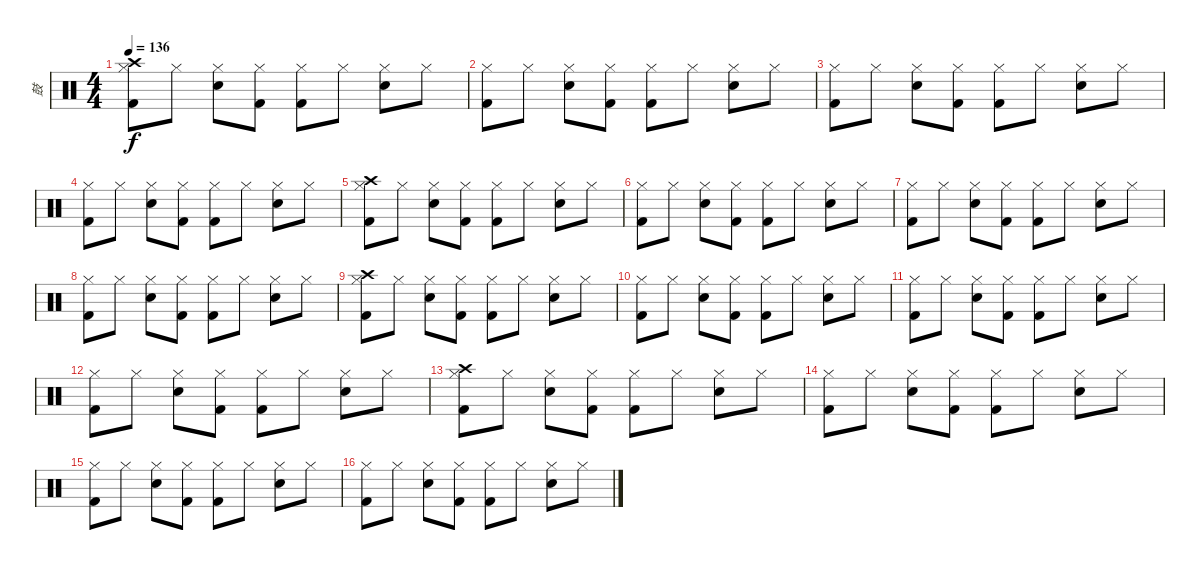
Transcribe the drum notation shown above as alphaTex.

\track ("鼓" "鼓") {instrument percussion}
\staff {score}
\articulation defaults
\ts (4 4)
\tempo 136
\clef neutral
\ks c
("Hi-Hat (closed)" "Crash high (hit)" "Kick (hit) 2").8{dy f} "Hi-Hat (closed)".8 ("Hi-Hat (closed)" "Electric Snare (hit)").8 ("Hi-Hat (closed)" "Kick (hit) 2").8 ("Hi-Hat (closed)" "Kick (hit) 2").8 "Hi-Hat (closed)".8 ("Hi-Hat (closed)" "Electric Snare (hit)").8 "Hi-Hat (closed)".8 |
("Hi-Hat (closed)" "Kick (hit) 2").8 "Hi-Hat (closed)".8 ("Hi-Hat (closed)" "Electric Snare (hit)").8 ("Hi-Hat (closed)" "Kick (hit) 2").8 ("Hi-Hat (closed)" "Kick (hit) 2").8 "Hi-Hat (closed)".8 ("Hi-Hat (closed)" "Electric Snare (hit)").8 "Hi-Hat (closed)".8 |
("Hi-Hat (closed)" "Kick (hit) 2").8 "Hi-Hat (closed)".8 ("Hi-Hat (closed)" "Electric Snare (hit)").8 ("Hi-Hat (closed)" "Kick (hit) 2").8 ("Hi-Hat (closed)" "Kick (hit) 2").8 "Hi-Hat (closed)".8 ("Hi-Hat (closed)" "Electric Snare (hit)").8 "Hi-Hat (closed)".8 |
("Hi-Hat (closed)" "Kick (hit) 2").8 "Hi-Hat (closed)".8 ("Hi-Hat (closed)" "Electric Snare (hit)").8 ("Hi-Hat (closed)" "Kick (hit) 2").8 ("Hi-Hat (closed)" "Kick (hit) 2").8 "Hi-Hat (closed)".8 ("Hi-Hat (closed)" "Electric Snare (hit)").8 "Hi-Hat (closed)".8 |
("Hi-Hat (closed)" "Crash high (hit)" "Kick (hit) 2").8 "Hi-Hat (closed)".8 ("Hi-Hat (closed)" "Electric Snare (hit)").8 ("Hi-Hat (closed)" "Kick (hit) 2").8 ("Hi-Hat (closed)" "Kick (hit) 2").8 "Hi-Hat (closed)".8 ("Hi-Hat (closed)" "Electric Snare (hit)").8 "Hi-Hat (closed)".8 |
("Hi-Hat (closed)" "Kick (hit) 2").8 "Hi-Hat (closed)".8 ("Hi-Hat (closed)" "Electric Snare (hit)").8 ("Hi-Hat (closed)" "Kick (hit) 2").8 ("Hi-Hat (closed)" "Kick (hit) 2").8 "Hi-Hat (closed)".8 ("Hi-Hat (closed)" "Electric Snare (hit)").8 "Hi-Hat (closed)".8 |
("Hi-Hat (closed)" "Kick (hit) 2").8 "Hi-Hat (closed)".8 ("Hi-Hat (closed)" "Electric Snare (hit)").8 ("Hi-Hat (closed)" "Kick (hit) 2").8 ("Hi-Hat (closed)" "Kick (hit) 2").8 "Hi-Hat (closed)".8 ("Hi-Hat (closed)" "Electric Snare (hit)").8 "Hi-Hat (closed)".8 |
("Hi-Hat (closed)" "Kick (hit) 2").8 "Hi-Hat (closed)".8 ("Hi-Hat (closed)" "Electric Snare (hit)").8 ("Hi-Hat (closed)" "Kick (hit) 2").8 ("Hi-Hat (closed)" "Kick (hit) 2").8 "Hi-Hat (closed)".8 ("Hi-Hat (closed)" "Electric Snare (hit)").8 "Hi-Hat (closed)".8 |
("Hi-Hat (closed)" "Crash high (hit)" "Kick (hit) 2").8 "Hi-Hat (closed)".8 ("Hi-Hat (closed)" "Electric Snare (hit)").8 ("Hi-Hat (closed)" "Kick (hit) 2").8 ("Hi-Hat (closed)" "Kick (hit) 2").8 "Hi-Hat (closed)".8 ("Hi-Hat (closed)" "Electric Snare (hit)").8 "Hi-Hat (closed)".8 |
("Hi-Hat (closed)" "Kick (hit) 2").8 "Hi-Hat (closed)".8 ("Hi-Hat (closed)" "Electric Snare (hit)").8 ("Hi-Hat (closed)" "Kick (hit) 2").8 ("Hi-Hat (closed)" "Kick (hit) 2").8 "Hi-Hat (closed)".8 ("Hi-Hat (closed)" "Electric Snare (hit)").8 "Hi-Hat (closed)".8 |
("Hi-Hat (closed)" "Kick (hit) 2").8 "Hi-Hat (closed)".8 ("Hi-Hat (closed)" "Electric Snare (hit)").8 ("Hi-Hat (closed)" "Kick (hit) 2").8 ("Hi-Hat (closed)" "Kick (hit) 2").8 "Hi-Hat (closed)".8 ("Hi-Hat (closed)" "Electric Snare (hit)").8 "Hi-Hat (closed)".8 |
("Hi-Hat (closed)" "Kick (hit) 2").8 "Hi-Hat (closed)".8 ("Hi-Hat (closed)" "Electric Snare (hit)").8 ("Hi-Hat (closed)" "Kick (hit) 2").8 ("Hi-Hat (closed)" "Kick (hit) 2").8 "Hi-Hat (closed)".8 ("Hi-Hat (closed)" "Electric Snare (hit)").8 "Hi-Hat (closed)".8 |
("Hi-Hat (closed)" "Crash high (hit)" "Kick (hit) 2").8 "Hi-Hat (closed)".8 ("Hi-Hat (closed)" "Electric Snare (hit)").8 ("Hi-Hat (closed)" "Kick (hit) 2").8 ("Hi-Hat (closed)" "Kick (hit) 2").8 "Hi-Hat (closed)".8 ("Hi-Hat (closed)" "Electric Snare (hit)").8 "Hi-Hat (closed)".8 |
("Hi-Hat (closed)" "Kick (hit) 2").8 "Hi-Hat (closed)".8 ("Hi-Hat (closed)" "Electric Snare (hit)").8 ("Hi-Hat (closed)" "Kick (hit) 2").8 ("Hi-Hat (closed)" "Kick (hit) 2").8 "Hi-Hat (closed)".8 ("Hi-Hat (closed)" "Electric Snare (hit)").8 "Hi-Hat (closed)".8 |
("Hi-Hat (closed)" "Kick (hit) 2").8 "Hi-Hat (closed)".8 ("Hi-Hat (closed)" "Electric Snare (hit)").8 ("Hi-Hat (closed)" "Kick (hit) 2").8 ("Hi-Hat (closed)" "Kick (hit) 2").8 "Hi-Hat (closed)".8 ("Hi-Hat (closed)" "Electric Snare (hit)").8 "Hi-Hat (closed)".8 |
("Hi-Hat (closed)" "Kick (hit) 2").8 "Hi-Hat (closed)".8 ("Hi-Hat (closed)" "Electric Snare (hit)").8 ("Hi-Hat (closed)" "Kick (hit) 2").8 ("Hi-Hat (closed)" "Kick (hit) 2").8 "Hi-Hat (closed)".8 ("Hi-Hat (closed)" "Electric Snare (hit)").8 "Hi-Hat (closed)".8
